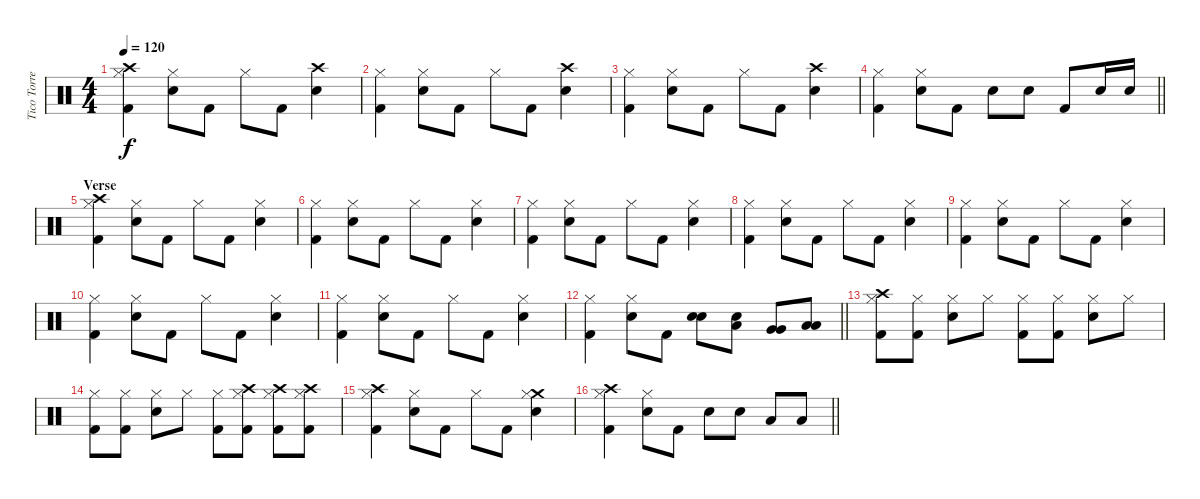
\track ("Tico Torres (Drums)" "Tico Torre") {instrument percussion}
\staff {score}
\articulation defaults
\ts (4 4)
\tempo 120
\clef neutral
\ks c
("Crash high (hit)" "Hi-Hat (closed)" "Kick (hit) 2").4{dy f} ("Hi-Hat (closed)" "Electric Snare (hit)").8 "Kick (hit) 2".8 "Hi-Hat (closed)".8 "Kick (hit) 2".8 ("Crash high (hit)" "Electric Snare (hit)").4 |
("Hi-Hat (closed)" "Kick (hit) 2").4 ("Hi-Hat (closed)" "Electric Snare (hit)").8 "Kick (hit) 2".8 "Hi-Hat (closed)".8 "Kick (hit) 2".8 ("Crash high (hit)" "Electric Snare (hit)").4 |
("Hi-Hat (closed)" "Kick (hit) 2").4 ("Hi-Hat (closed)" "Electric Snare (hit)").8 "Kick (hit) 2".8 "Hi-Hat (closed)".8 "Kick (hit) 2".8 ("Crash high (hit)" "Electric Snare (hit)").4 |
\barLineRight lightlight
("Hi-Hat (closed)" "Kick (hit) 2").4 ("Hi-Hat (closed)" "Electric Snare (hit)").8 "Kick (hit) 2".8 "Electric Snare (hit)".8 "Electric Snare (hit)".8 "Kick (hit) 2".8 "Electric Snare (hit)".16 "Electric Snare (hit)".16 |
\section ("" "Verse")
("Crash high (hit)" "Hi-Hat (closed)" "Kick (hit) 2").4 ("Hi-Hat (closed)" "Electric Snare (hit)").8 "Kick (hit) 2".8 "Hi-Hat (closed)".8 "Kick (hit) 2".8 ("Hi-Hat (closed)" "Electric Snare (hit)").4 |
("Hi-Hat (closed)" "Kick (hit) 2").4 ("Hi-Hat (closed)" "Electric Snare (hit)").8 "Kick (hit) 2".8 "Hi-Hat (closed)".8 "Kick (hit) 2".8 ("Hi-Hat (closed)" "Electric Snare (hit)").4 |
("Hi-Hat (closed)" "Kick (hit) 2").4 ("Hi-Hat (closed)" "Electric Snare (hit)").8 "Kick (hit) 2".8 "Hi-Hat (closed)".8 "Kick (hit) 2".8 ("Hi-Hat (closed)" "Electric Snare (hit)").4 |
("Hi-Hat (closed)" "Kick (hit) 2").4 ("Hi-Hat (closed)" "Electric Snare (hit)").8 "Kick (hit) 2".8 "Hi-Hat (closed)".8 "Kick (hit) 2".8 ("Hi-Hat (closed)" "Electric Snare (hit)").4 |
("Hi-Hat (closed)" "Kick (hit) 2").4 ("Hi-Hat (closed)" "Electric Snare (hit)").8 "Kick (hit) 2".8 "Hi-Hat (closed)".8 "Kick (hit) 2".8 ("Hi-Hat (closed)" "Electric Snare (hit)").4 |
("Hi-Hat (closed)" "Kick (hit) 2").4 ("Hi-Hat (closed)" "Electric Snare (hit)").8 "Kick (hit) 2".8 "Hi-Hat (closed)".8 "Kick (hit) 2".8 ("Hi-Hat (closed)" "Electric Snare (hit)").4 |
("Hi-Hat (closed)" "Kick (hit) 2").4 ("Hi-Hat (closed)" "Electric Snare (hit)").8 "Kick (hit) 2".8 "Hi-Hat (closed)".8 "Kick (hit) 2".8 ("Hi-Hat (closed)" "Electric Snare (hit)").4 |
\barLineRight lightlight
("Hi-Hat (closed)" "Kick (hit) 2").4 ("Hi-Hat (closed)" "Electric Snare (hit)").8 "Kick (hit) 2".8 ("Electric Snare (hit)" "Electric Snare (hit)").8{bd 60} ("Low Tom (hit)" "Electric Snare (hit)").8{bd 60} ("Very Low Tom (hit)" "Very Low Tom (hit)").8{bd 60} ("Low Tom (hit)" "Low Tom (hit)").8{bd 60} |
("Crash high (hit)" "Hi-Hat (closed)" "Kick (hit) 2").8 ("Hi-Hat (closed)" "Kick (hit) 2").8 ("Hi-Hat (closed)" "Electric Snare (hit)").8 "Hi-Hat (closed)".8 ("Hi-Hat (closed)" "Kick (hit) 2").8 ("Hi-Hat (closed)" "Kick (hit) 2").8 ("Hi-Hat (closed)" "Electric Snare (hit)").8 "Hi-Hat (closed)".8 |
("Hi-Hat (closed)" "Kick (hit) 2").8 ("Hi-Hat (closed)" "Kick (hit) 2").8 ("Hi-Hat (closed)" "Electric Snare (hit)").8 "Hi-Hat (closed)".8 ("Hi-Hat (closed)" "Kick (hit) 2").8 ("Crash high (hit)" "Hi-Hat (closed)" "Kick (hit) 2").8 ("Crash high (hit)" "Hi-Hat (closed)" "Kick (hit) 2").8 ("Crash high (hit)" "Hi-Hat (closed)" "Kick (hit) 2").8 |
("Crash high (hit)" "Hi-Hat (closed)" "Kick (hit) 2").4 ("Hi-Hat (closed)" "Electric Snare (hit)").8 "Kick (hit) 2".8 "Hi-Hat (closed)".8 "Kick (hit) 2".8 ("Crash medium (hit)" "Hi-Hat (closed)" "Electric Snare (hit)").4 |
\barLineRight lightlight
("Crash high (hit)" "Hi-Hat (closed)" "Kick (hit) 2").4 ("Hi-Hat (closed)" "Electric Snare (hit)").8 "Kick (hit) 2".8 "Electric Snare (hit)".8 "Electric Snare (hit)".8 "Low Tom (hit)".8 "Low Tom (hit)".8
